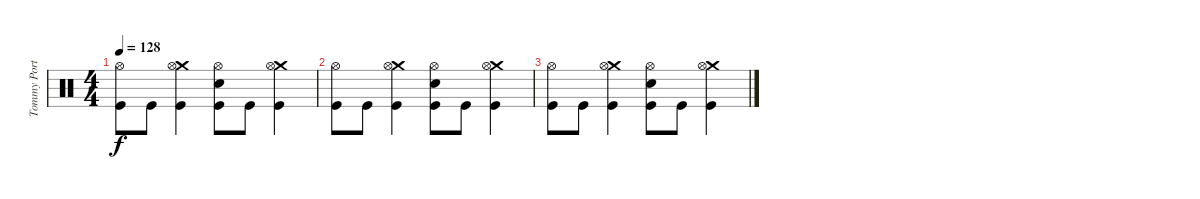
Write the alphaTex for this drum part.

\track ("Tommy Portimo - Drums" "Tommy Port") {instrument percussion}
\staff {score}
\articulation defaults
\ts (4 4)
\tempo 128
\clef neutral
\ks c
("Hi-Hat (open)" "Kick (hit)").8{dy f} "Kick (hit)".8 ("Crash medium (hit)" "Hi-Hat (open)" "Kick (hit)").4 ("Hi-Hat (open)" "Electric Snare (hit)" "Kick (hit)").8 "Kick (hit)".8 ("Crash medium (hit)" "Hi-Hat (open)" "Kick (hit)").4 |
("Hi-Hat (open)" "Kick (hit)").8 "Kick (hit)".8 ("Crash medium (hit)" "Hi-Hat (open)" "Kick (hit)").4 ("Hi-Hat (open)" "Electric Snare (hit)" "Kick (hit)").8 "Kick (hit)".8 ("Crash medium (hit)" "Hi-Hat (open)" "Kick (hit)").4 |
("Hi-Hat (open)" "Kick (hit)").8 "Kick (hit)".8 ("Crash medium (hit)" "Hi-Hat (open)" "Kick (hit)").4 ("Hi-Hat (open)" "Electric Snare (hit)" "Kick (hit)").8 "Kick (hit)".8 ("Crash medium (hit)" "Hi-Hat (open)" "Kick (hit)").4
